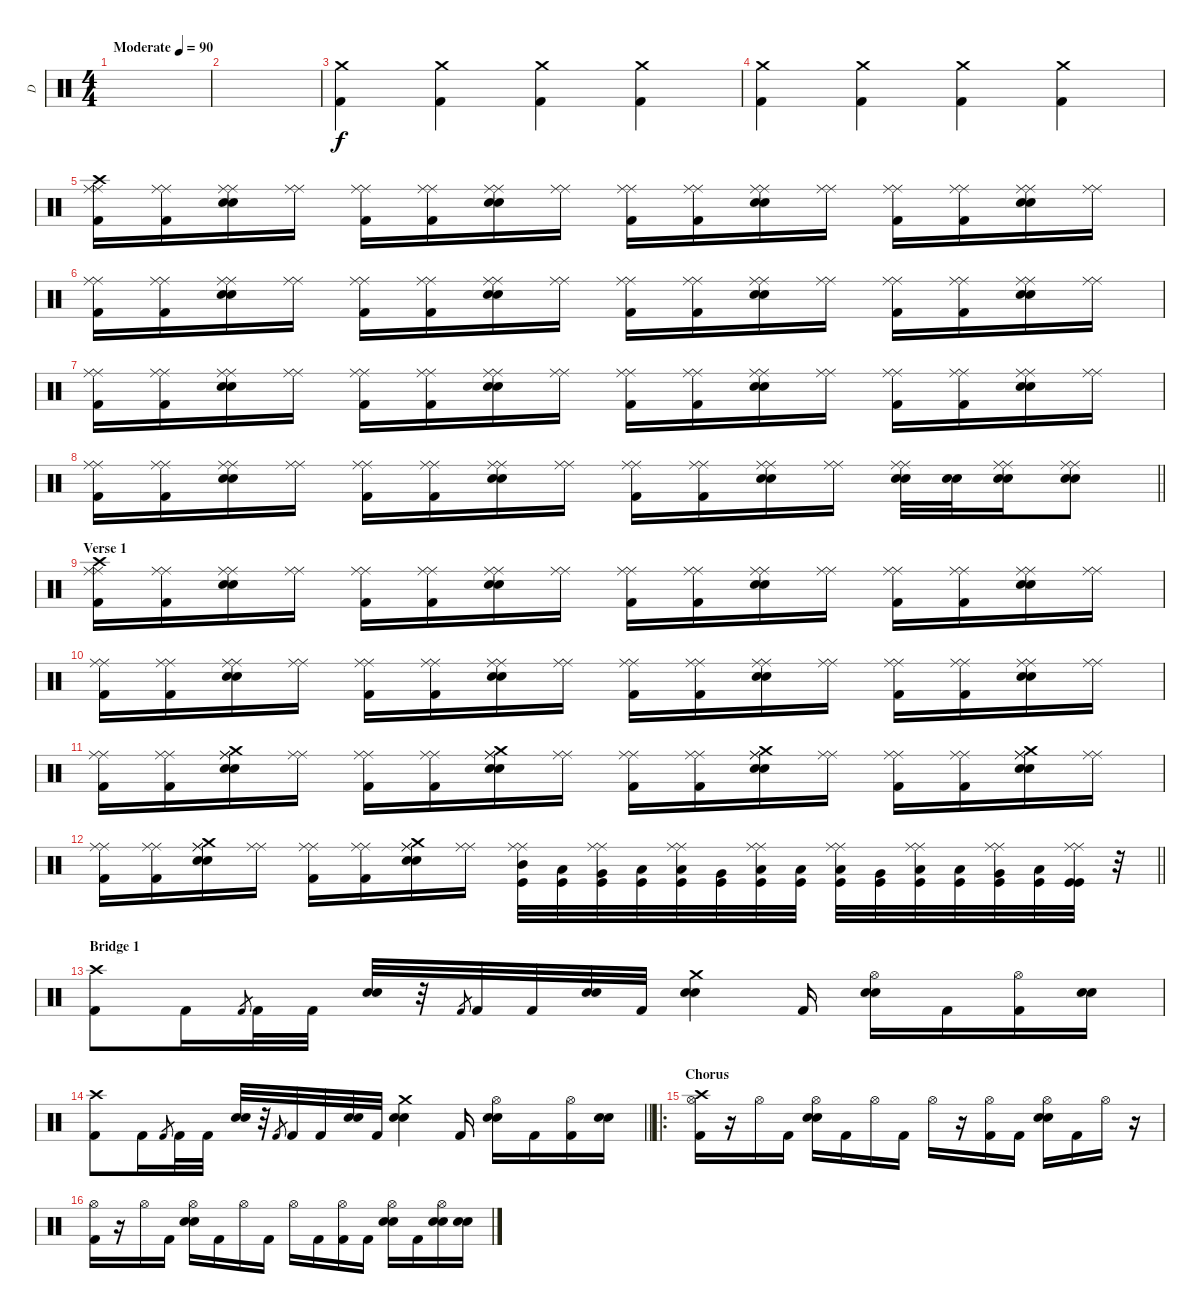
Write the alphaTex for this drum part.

\track ("D" "D") {instrument percussion}
\staff {score}
\articulation defaults
\ts (4 4)
\tempo (90 "Moderate")
\clef neutral
\ks c
|
|
("Crash medium (hit)" "Kick (hit) 2").4 ("Crash medium (hit)" "Kick (hit) 2").4 ("Crash medium (hit)" "Kick (hit) 2").4 ("Crash medium (hit)" "Kick (hit) 2").4 |
("Crash medium (hit)" "Kick (hit) 2").4 ("Crash medium (hit)" "Kick (hit) 2").4 ("Crash medium (hit)" "Kick (hit) 2").4 ("Crash medium (hit)" "Kick (hit) 2").4 |
("Crash high (hit)" "Kick (hit) 2" "Ride (middle)" "Ride (middle)").16 ("Kick (hit) 2" "Ride (middle)" "Ride (middle)").16 ("Electric Snare (hit)" "Electric Snare (hit)" "Ride (middle)" "Ride (middle)").16 ("Ride (middle)" "Ride (middle)").16 ("Kick (hit) 2" "Ride (middle)" "Ride (middle)").16 ("Kick (hit) 2" "Ride (middle)" "Ride (middle)").16 ("Electric Snare (hit)" "Electric Snare (hit)" "Ride (middle)" "Ride (middle)").16 ("Ride (middle)" "Ride (middle)").16 ("Kick (hit) 2" "Ride (middle)" "Ride (middle)").16 ("Kick (hit) 2" "Ride (middle)" "Ride (middle)").16 ("Electric Snare (hit)" "Electric Snare (hit)" "Ride (middle)" "Ride (middle)").16 ("Ride (middle)" "Ride (middle)").16 ("Kick (hit) 2" "Ride (middle)" "Ride (middle)").16 ("Kick (hit) 2" "Ride (middle)" "Ride (middle)").16 ("Electric Snare (hit)" "Electric Snare (hit)" "Ride (middle)" "Ride (middle)").16 ("Ride (middle)" "Ride (middle)").16 |
("Kick (hit) 2" "Ride (middle)" "Ride (middle)").16 ("Kick (hit) 2" "Ride (middle)" "Ride (middle)").16 ("Electric Snare (hit)" "Electric Snare (hit)" "Ride (middle)" "Ride (middle)").16 ("Ride (middle)" "Ride (middle)").16 ("Kick (hit) 2" "Ride (middle)" "Ride (middle)").16 ("Kick (hit) 2" "Ride (middle)" "Ride (middle)").16 ("Electric Snare (hit)" "Electric Snare (hit)" "Ride (middle)" "Ride (middle)").16 ("Ride (middle)" "Ride (middle)").16 ("Kick (hit) 2" "Ride (middle)" "Ride (middle)").16 ("Kick (hit) 2" "Ride (middle)" "Ride (middle)").16 ("Electric Snare (hit)" "Electric Snare (hit)" "Ride (middle)" "Ride (middle)").16 ("Ride (middle)" "Ride (middle)").16 ("Kick (hit) 2" "Ride (middle)" "Ride (middle)").16 ("Kick (hit) 2" "Ride (middle)" "Ride (middle)").16 ("Electric Snare (hit)" "Electric Snare (hit)" "Ride (middle)" "Ride (middle)").16 ("Ride (middle)" "Ride (middle)").16 |
("Kick (hit) 2" "Ride (middle)" "Ride (middle)").16 ("Kick (hit) 2" "Ride (middle)" "Ride (middle)").16 ("Electric Snare (hit)" "Electric Snare (hit)" "Ride (middle)" "Ride (middle)").16 ("Ride (middle)" "Ride (middle)").16 ("Kick (hit) 2" "Ride (middle)" "Ride (middle)").16 ("Kick (hit) 2" "Ride (middle)" "Ride (middle)").16 ("Electric Snare (hit)" "Electric Snare (hit)" "Ride (middle)" "Ride (middle)").16 ("Ride (middle)" "Ride (middle)").16 ("Kick (hit) 2" "Ride (middle)" "Ride (middle)").16 ("Kick (hit) 2" "Ride (middle)" "Ride (middle)").16 ("Electric Snare (hit)" "Electric Snare (hit)" "Ride (middle)" "Ride (middle)").16 ("Ride (middle)" "Ride (middle)").16 ("Kick (hit) 2" "Ride (middle)" "Ride (middle)").16 ("Kick (hit) 2" "Ride (middle)" "Ride (middle)").16 ("Electric Snare (hit)" "Electric Snare (hit)" "Ride (middle)" "Ride (middle)").16 ("Ride (middle)" "Ride (middle)").16 |
\barLineRight lightlight
("Kick (hit) 2" "Ride (middle)" "Ride (middle)").16 ("Kick (hit) 2" "Ride (middle)" "Ride (middle)").16 ("Electric Snare (hit)" "Electric Snare (hit)" "Ride (middle)" "Ride (middle)").16 ("Ride (middle)" "Ride (middle)").16 ("Kick (hit) 2" "Ride (middle)" "Ride (middle)").16 ("Kick (hit) 2" "Ride (middle)" "Ride (middle)").16 ("Electric Snare (hit)" "Electric Snare (hit)" "Ride (middle)" "Ride (middle)").16 ("Ride (middle)" "Ride (middle)").16 ("Kick (hit) 2" "Ride (middle)" "Ride (middle)").16 ("Kick (hit) 2" "Ride (middle)" "Ride (middle)").16 ("Electric Snare (hit)" "Electric Snare (hit)" "Ride (middle)" "Ride (middle)").16 ("Ride (middle)" "Ride (middle)").16 ("Electric Snare (hit)" "Electric Snare (hit)" "Ride (middle)" "Ride (middle)").32 ("Electric Snare (hit)" "Electric Snare (hit)").32 ("Electric Snare (hit)" "Electric Snare (hit)" "Ride (middle)" "Ride (middle)").16 ("Electric Snare (hit)" "Electric Snare (hit)" "Ride (middle)" "Ride (middle)").8 |
\section ("" "Verse 1")
("Crash high (hit)" "Kick (hit) 2" "Ride (middle)" "Ride (middle)").16 ("Kick (hit) 2" "Ride (middle)" "Ride (middle)").16 ("Electric Snare (hit)" "Electric Snare (hit)" "Ride (middle)" "Ride (middle)").16 ("Ride (middle)" "Ride (middle)").16 ("Kick (hit) 2" "Ride (middle)" "Ride (middle)").16 ("Kick (hit) 2" "Ride (middle)" "Ride (middle)").16 ("Electric Snare (hit)" "Electric Snare (hit)" "Ride (middle)" "Ride (middle)").16 ("Ride (middle)" "Ride (middle)").16 ("Kick (hit) 2" "Ride (middle)" "Ride (middle)").16 ("Kick (hit) 2" "Ride (middle)" "Ride (middle)").16 ("Electric Snare (hit)" "Electric Snare (hit)" "Ride (middle)" "Ride (middle)").16 ("Ride (middle)" "Ride (middle)").16 ("Kick (hit) 2" "Ride (middle)" "Ride (middle)").16 ("Kick (hit) 2" "Ride (middle)" "Ride (middle)").16 ("Electric Snare (hit)" "Electric Snare (hit)" "Ride (middle)" "Ride (middle)").16 ("Ride (middle)" "Ride (middle)").16 |
("Kick (hit) 2" "Ride (middle)" "Ride (middle)").16 ("Kick (hit) 2" "Ride (middle)" "Ride (middle)").16 ("Electric Snare (hit)" "Electric Snare (hit)" "Ride (middle)" "Ride (middle)").16 ("Ride (middle)" "Ride (middle)").16 ("Kick (hit) 2" "Ride (middle)" "Ride (middle)").16 ("Kick (hit) 2" "Ride (middle)" "Ride (middle)").16 ("Electric Snare (hit)" "Electric Snare (hit)" "Ride (middle)" "Ride (middle)").16 ("Ride (middle)" "Ride (middle)").16 ("Kick (hit) 2" "Ride (middle)" "Ride (middle)").16 ("Kick (hit) 2" "Ride (middle)" "Ride (middle)").16 ("Electric Snare (hit)" "Electric Snare (hit)" "Ride (middle)" "Ride (middle)").16 ("Ride (middle)" "Ride (middle)").16 ("Kick (hit) 2" "Ride (middle)" "Ride (middle)").16 ("Kick (hit) 2" "Ride (middle)" "Ride (middle)").16 ("Electric Snare (hit)" "Electric Snare (hit)" "Ride (middle)" "Ride (middle)").16 ("Ride (middle)" "Ride (middle)").16 |
("Kick (hit) 2" "Ride (middle)" "Ride (middle)").16 ("Kick (hit) 2" "Ride (middle)" "Ride (middle)").16 ("Crash medium (hit)" "Electric Snare (hit)" "Electric Snare (hit)" "Ride (middle)" "Ride (middle)").16 ("Ride (middle)" "Ride (middle)").16 ("Kick (hit) 2" "Ride (middle)" "Ride (middle)").16 ("Kick (hit) 2" "Ride (middle)" "Ride (middle)").16 ("Crash medium (hit)" "Electric Snare (hit)" "Electric Snare (hit)" "Ride (middle)" "Ride (middle)").16 ("Ride (middle)" "Ride (middle)").16 ("Kick (hit) 2" "Ride (middle)" "Ride (middle)").16 ("Kick (hit) 2" "Ride (middle)" "Ride (middle)").16 ("Crash medium (hit)" "Electric Snare (hit)" "Electric Snare (hit)" "Ride (middle)" "Ride (middle)").16 ("Ride (middle)" "Ride (middle)").16 ("Kick (hit) 2" "Ride (middle)" "Ride (middle)").16 ("Kick (hit) 2" "Ride (middle)" "Ride (middle)").16 ("Crash medium (hit)" "Electric Snare (hit)" "Electric Snare (hit)" "Ride (middle)" "Ride (middle)").16 ("Ride (middle)" "Ride (middle)").16 |
\barLineRight lightlight
("Kick (hit) 2" "Ride (middle)" "Ride (middle)").16 ("Kick (hit) 2" "Ride (middle)" "Ride (middle)").16 ("Crash medium (hit)" "Electric Snare (hit)" "Electric Snare (hit)" "Ride (middle)" "Ride (middle)").16 ("Ride (middle)" "Ride (middle)").16 ("Kick (hit) 2" "Ride (middle)" "Ride (middle)").16 ("Kick (hit) 2" "Ride (middle)" "Ride (middle)").16 ("Crash medium (hit)" "Electric Snare (hit)" "Electric Snare (hit)" "Ride (middle)" "Ride (middle)").16 ("Ride (middle)" "Ride (middle)").16 ("Kick (hit)" "Mid Tom (hit)" "Ride (middle)" "Ride (middle)").32 ("Kick (hit)" "Low Tom (hit)").32 ("Kick (hit)" "Very Low Tom (hit)" "Ride (middle)" "Ride (middle)").32 ("Kick (hit)" "Low Floor Tom (hit)").32 ("Kick (hit)" "Low Tom (hit)" "Ride (middle)" "Ride (middle)").32 ("Kick (hit)" "Very Low Tom (hit)").32 ("Kick (hit)" "Low Floor Tom (hit)" "Ride (middle)" "Ride (middle)").32 ("Kick (hit)" "Low Floor Tom (hit)").32 ("Kick (hit)" "Low Tom (hit)" "Ride (middle)" "Ride (middle)").32 ("Kick (hit)" "Very Low Tom (hit)").32 ("Kick (hit)" "Low Floor Tom (hit)" "Ride (middle)" "Ride (middle)").32 ("Kick (hit)" "Low Floor Tom (hit)").32 ("Kick (hit)" "Very Low Tom (hit)" "Ride (middle)" "Ride (middle)").32 ("Kick (hit)" "Low Floor Tom (hit)").32 ("Kick (hit)" "Kick (hit)" "Ride (middle)" "Ride (middle)").32 r.32 |
\section ("" "Bridge 1")
("Crash high (hit)" "Kick (hit) 2").8 "Kick (hit) 2".16 "Kick (hit) 2".8{gr} "Kick (hit) 2".32 "Kick (hit) 2".32 ("Electric Snare (hit)" "Electric Snare (hit)").32 r.32 "Kick (hit) 2".8{gr} "Kick (hit) 2".32 "Kick (hit) 2".32 ("Electric Snare (hit)" "Electric Snare (hit)").32 "Kick (hit) 2".32 ("Crash medium (hit)" "Electric Snare (hit)" "Electric Snare (hit)").4 "Kick (hit) 2".16 ("Hi-Hat (open)" "Electric Snare (hit)" "Electric Snare (hit)").16 "Kick (hit) 2".16 ("Hi-Hat (open)" "Kick (hit) 2").16 ("Electric Snare (hit)" "Electric Snare (hit)").16 |
\barLineRight lightlight
("Crash high (hit)" "Kick (hit) 2").8 "Kick (hit) 2".16 "Kick (hit) 2".8{gr} "Kick (hit) 2".32 "Kick (hit) 2".32 ("Electric Snare (hit)" "Electric Snare (hit)").32 r.32 "Kick (hit) 2".8{gr} "Kick (hit) 2".32 "Kick (hit) 2".32 ("Electric Snare (hit)" "Electric Snare (hit)").32 "Kick (hit) 2".32 ("Crash medium (hit)" "Electric Snare (hit)" "Electric Snare (hit)").4 "Kick (hit) 2".16 ("Hi-Hat (open)" "Electric Snare (hit)" "Electric Snare (hit)").16 "Kick (hit) 2".16 ("Hi-Hat (open)" "Kick (hit) 2").16 ("Electric Snare (hit)" "Electric Snare (hit)").16 |
\ro
\section ("" "Chorus")
("Crash high (hit)" "Kick (hit) 2" "Hi-Hat (open)").16 r.16 "Hi-Hat (open)".16 "Kick (hit) 2".16 ("Electric Snare (hit)" "Electric Snare (hit)" "Hi-Hat (open)").16 "Kick (hit) 2".16 "Hi-Hat (open)".16 "Kick (hit) 2".16 "Hi-Hat (open)".16 r.16 ("Kick (hit) 2" "Hi-Hat (open)").16 "Kick (hit) 2".16 ("Electric Snare (hit)" "Electric Snare (hit)" "Hi-Hat (open)").16 "Kick (hit) 2".16 "Hi-Hat (open)".16 r.16 |
("Kick (hit) 2" "Hi-Hat (open)").16 r.16 "Hi-Hat (open)".16 "Kick (hit) 2".16 ("Electric Snare (hit)" "Electric Snare (hit)" "Hi-Hat (open)").16 "Kick (hit) 2".16 "Hi-Hat (open)".16 "Kick (hit) 2".16 "Hi-Hat (open)".16 "Kick (hit) 2".16 ("Kick (hit) 2" "Hi-Hat (open)").16 "Kick (hit) 2".16 ("Electric Snare (hit)" "Electric Snare (hit)" "Hi-Hat (open)").16 "Kick (hit) 2".16 ("Electric Snare (hit)" "Electric Snare (hit)" "Hi-Hat (open)").16 ("Electric Snare (hit)" "Electric Snare (hit)").16
